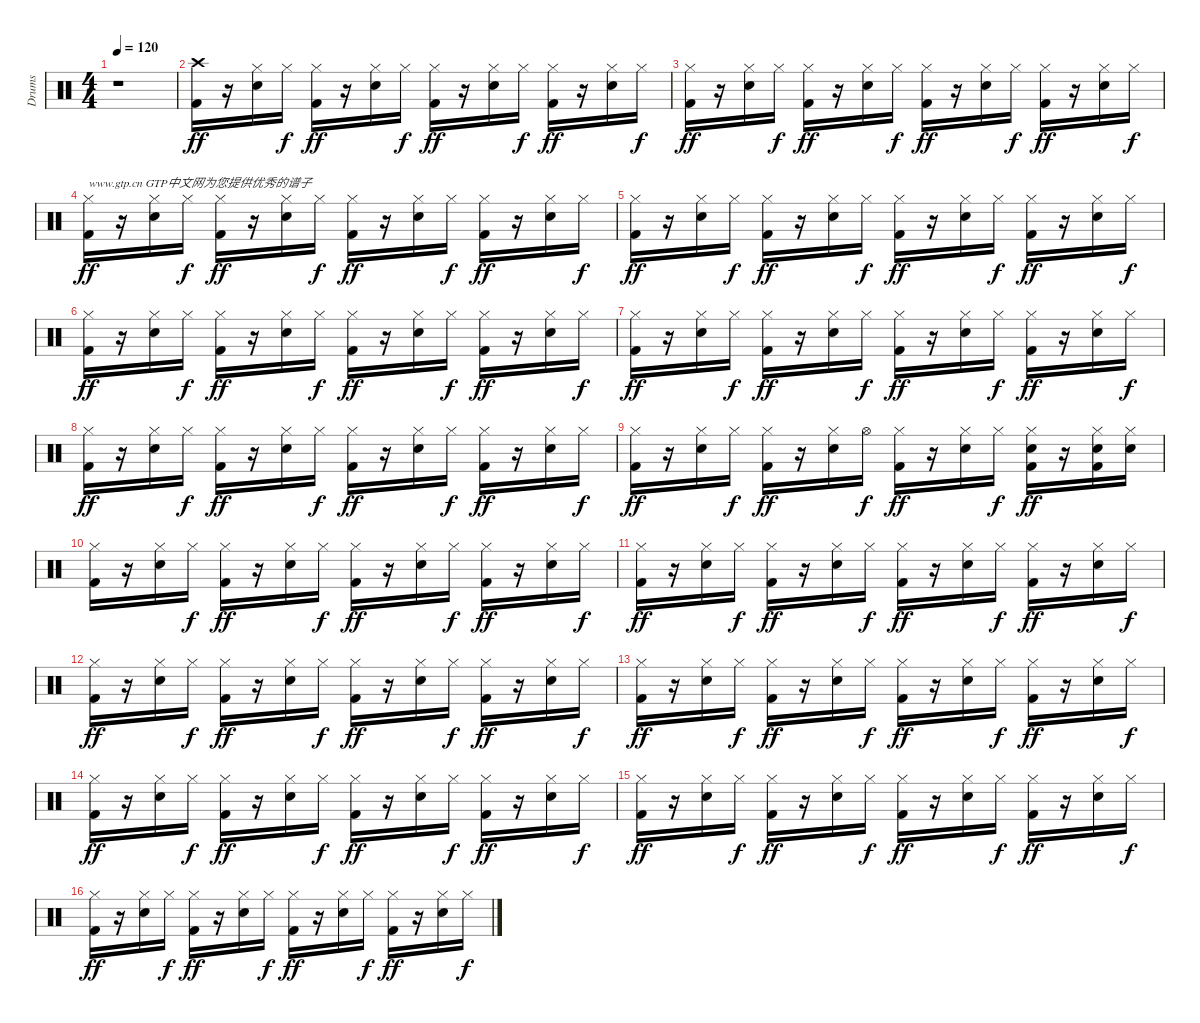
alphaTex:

\track ("Drums" "Drums") {instrument percussion}
\staff {score}
\articulation defaults
\ts (4 4)
\tempo 120
\clef neutral
\ks c
r.1{dy ff} |
("Crash high (hit)" "Kick (hit) 2").16 r.16 ("Hi-Hat (closed)" "Snare (hit) 2").16 "Hi-Hat (closed)".16{dy f} ("Hi-Hat (closed)" "Kick (hit) 2").16{dy ff} r.16 ("Hi-Hat (closed)" "Snare (hit) 2").16 "Hi-Hat (closed)".16{dy f} ("Hi-Hat (closed)" "Kick (hit) 2").16{dy ff} r.16 ("Hi-Hat (closed)" "Snare (hit) 2").16 "Hi-Hat (closed)".16{dy f} ("Hi-Hat (closed)" "Kick (hit) 2").16{dy ff} r.16 ("Hi-Hat (closed)" "Snare (hit) 2").16 "Hi-Hat (closed)".16{dy f} |
("Hi-Hat (closed)" "Kick (hit) 2").16{dy ff} r.16 ("Hi-Hat (closed)" "Snare (hit) 2").16 "Hi-Hat (closed)".16{dy f} ("Hi-Hat (closed)" "Kick (hit) 2").16{dy ff} r.16 ("Hi-Hat (closed)" "Snare (hit) 2").16 "Hi-Hat (closed)".16{dy f} ("Hi-Hat (closed)" "Kick (hit) 2").16{dy ff} r.16 ("Hi-Hat (closed)" "Snare (hit) 2").16 "Hi-Hat (closed)".16{dy f} ("Hi-Hat (closed)" "Kick (hit) 2").16{dy ff} r.16 ("Hi-Hat (closed)" "Snare (hit) 2").16 "Hi-Hat (closed)".16{dy f} |
("Hi-Hat (closed)" "Kick (hit) 2").16{txt "www.gtp.cn GTP中文网为您提供优秀的谱子" dy ff} r.16 ("Hi-Hat (closed)" "Snare (hit) 2").16 "Hi-Hat (closed)".16{dy f} ("Hi-Hat (closed)" "Kick (hit) 2").16{dy ff} r.16 ("Hi-Hat (closed)" "Snare (hit) 2").16 "Hi-Hat (closed)".16{dy f} ("Hi-Hat (closed)" "Kick (hit) 2").16{dy ff} r.16 ("Hi-Hat (closed)" "Snare (hit) 2").16 "Hi-Hat (closed)".16{dy f} ("Hi-Hat (closed)" "Kick (hit) 2").16{dy ff} r.16 ("Hi-Hat (closed)" "Snare (hit) 2").16 "Hi-Hat (closed)".16{dy f} |
("Hi-Hat (closed)" "Kick (hit) 2").16{dy ff} r.16 ("Hi-Hat (closed)" "Snare (hit) 2").16 "Hi-Hat (closed)".16{dy f} ("Hi-Hat (closed)" "Kick (hit) 2").16{dy ff} r.16 ("Hi-Hat (closed)" "Snare (hit) 2").16 "Hi-Hat (closed)".16{dy f} ("Hi-Hat (closed)" "Kick (hit) 2").16{dy ff} r.16 ("Hi-Hat (closed)" "Snare (hit) 2").16 "Hi-Hat (closed)".16{dy f} ("Hi-Hat (closed)" "Kick (hit) 2").16{dy ff} r.16 ("Hi-Hat (closed)" "Snare (hit) 2").16 "Hi-Hat (closed)".16{dy f} |
("Hi-Hat (closed)" "Kick (hit) 2").16{dy ff} r.16 ("Hi-Hat (closed)" "Snare (hit) 2").16 "Hi-Hat (closed)".16{dy f} ("Hi-Hat (closed)" "Kick (hit) 2").16{dy ff} r.16 ("Hi-Hat (closed)" "Snare (hit) 2").16 "Hi-Hat (closed)".16{dy f} ("Hi-Hat (closed)" "Kick (hit) 2").16{dy ff} r.16 ("Hi-Hat (closed)" "Snare (hit) 2").16 "Hi-Hat (closed)".16{dy f} ("Hi-Hat (closed)" "Kick (hit) 2").16{dy ff} r.16 ("Hi-Hat (closed)" "Snare (hit) 2").16 "Hi-Hat (closed)".16{dy f} |
("Hi-Hat (closed)" "Kick (hit) 2").16{dy ff} r.16 ("Hi-Hat (closed)" "Snare (hit) 2").16 "Hi-Hat (closed)".16{dy f} ("Hi-Hat (closed)" "Kick (hit) 2").16{dy ff} r.16 ("Hi-Hat (closed)" "Snare (hit) 2").16 "Hi-Hat (closed)".16{dy f} ("Hi-Hat (closed)" "Kick (hit) 2").16{dy ff} r.16 ("Hi-Hat (closed)" "Snare (hit) 2").16 "Hi-Hat (closed)".16{dy f} ("Hi-Hat (closed)" "Kick (hit) 2").16{dy ff} r.16 ("Hi-Hat (closed)" "Snare (hit) 2").16 "Hi-Hat (closed)".16{dy f} |
("Hi-Hat (closed)" "Kick (hit) 2").16{dy ff} r.16 ("Hi-Hat (closed)" "Snare (hit) 2").16 "Hi-Hat (closed)".16{dy f} ("Hi-Hat (closed)" "Kick (hit) 2").16{dy ff} r.16 ("Hi-Hat (closed)" "Snare (hit) 2").16 "Hi-Hat (closed)".16{dy f} ("Hi-Hat (closed)" "Kick (hit) 2").16{dy ff} r.16 ("Hi-Hat (closed)" "Snare (hit) 2").16 "Hi-Hat (closed)".16{dy f} ("Hi-Hat (closed)" "Kick (hit) 2").16{dy ff} r.16 ("Hi-Hat (closed)" "Snare (hit) 2").16 "Hi-Hat (closed)".16{dy f} |
("Hi-Hat (closed)" "Kick (hit) 2").16{dy ff} r.16 ("Hi-Hat (closed)" "Snare (hit) 2").16 "Hi-Hat (closed)".16{dy f} ("Hi-Hat (closed)" "Kick (hit) 2").16{dy ff} r.16 ("Hi-Hat (closed)" "Snare (hit) 2").16 "Hi-Hat (open)".16{dy f} ("Hi-Hat (closed)" "Kick (hit) 2").16{dy ff} r.16 ("Hi-Hat (closed)" "Snare (hit) 2").16 "Hi-Hat (closed)".16{dy f} ("Hi-Hat (closed)" "Snare (hit) 2" "Kick (hit) 2").16{dy ff} r.16 ("Hi-Hat (closed)" "Snare (hit) 2" "Kick (hit) 2").16 ("Hi-Hat (closed)" "Snare (hit) 2").16 |
("Hi-Hat (closed)" "Kick (hit) 2").16 r.16 ("Hi-Hat (closed)" "Snare (hit) 2").16 "Hi-Hat (closed)".16{dy f} ("Hi-Hat (closed)" "Kick (hit) 2").16{dy ff} r.16 ("Hi-Hat (closed)" "Snare (hit) 2").16 "Hi-Hat (closed)".16{dy f} ("Hi-Hat (closed)" "Kick (hit) 2").16{dy ff} r.16 ("Hi-Hat (closed)" "Snare (hit) 2").16 "Hi-Hat (closed)".16{dy f} ("Hi-Hat (closed)" "Kick (hit) 2").16{dy ff} r.16 ("Hi-Hat (closed)" "Snare (hit) 2").16 "Hi-Hat (closed)".16{dy f} |
("Hi-Hat (closed)" "Kick (hit) 2").16{dy ff} r.16 ("Hi-Hat (closed)" "Snare (hit) 2").16 "Hi-Hat (closed)".16{dy f} ("Hi-Hat (closed)" "Kick (hit) 2").16{dy ff} r.16 ("Hi-Hat (closed)" "Snare (hit) 2").16 "Hi-Hat (closed)".16{dy f} ("Hi-Hat (closed)" "Kick (hit) 2").16{dy ff} r.16 ("Hi-Hat (closed)" "Snare (hit) 2").16 "Hi-Hat (closed)".16{dy f} ("Hi-Hat (closed)" "Kick (hit) 2").16{dy ff} r.16 ("Hi-Hat (closed)" "Snare (hit) 2").16 "Hi-Hat (closed)".16{dy f} |
("Hi-Hat (closed)" "Kick (hit) 2").16{dy ff} r.16 ("Hi-Hat (closed)" "Snare (hit) 2").16 "Hi-Hat (closed)".16{dy f} ("Hi-Hat (closed)" "Kick (hit) 2").16{dy ff} r.16 ("Hi-Hat (closed)" "Snare (hit) 2").16 "Hi-Hat (closed)".16{dy f} ("Hi-Hat (closed)" "Kick (hit) 2").16{dy ff} r.16 ("Hi-Hat (closed)" "Snare (hit) 2").16 "Hi-Hat (closed)".16{dy f} ("Hi-Hat (closed)" "Kick (hit) 2").16{dy ff} r.16 ("Hi-Hat (closed)" "Snare (hit) 2").16 "Hi-Hat (closed)".16{dy f} |
("Hi-Hat (closed)" "Kick (hit) 2").16{dy ff} r.16 ("Hi-Hat (closed)" "Snare (hit) 2").16 "Hi-Hat (closed)".16{dy f} ("Hi-Hat (closed)" "Kick (hit) 2").16{dy ff} r.16 ("Hi-Hat (closed)" "Snare (hit) 2").16 "Hi-Hat (closed)".16{dy f} ("Hi-Hat (closed)" "Kick (hit) 2").16{dy ff} r.16 ("Hi-Hat (closed)" "Snare (hit) 2").16 "Hi-Hat (closed)".16{dy f} ("Hi-Hat (closed)" "Kick (hit) 2").16{dy ff} r.16 ("Hi-Hat (closed)" "Snare (hit) 2").16 "Hi-Hat (closed)".16{dy f} |
("Hi-Hat (closed)" "Kick (hit) 2").16{dy ff} r.16 ("Hi-Hat (closed)" "Snare (hit) 2").16 "Hi-Hat (closed)".16{dy f} ("Hi-Hat (closed)" "Kick (hit) 2").16{dy ff} r.16 ("Hi-Hat (closed)" "Snare (hit) 2").16 "Hi-Hat (closed)".16{dy f} ("Hi-Hat (closed)" "Kick (hit) 2").16{dy ff} r.16 ("Hi-Hat (closed)" "Snare (hit) 2").16 "Hi-Hat (closed)".16{dy f} ("Hi-Hat (closed)" "Kick (hit) 2").16{dy ff} r.16 ("Hi-Hat (closed)" "Snare (hit) 2").16 "Hi-Hat (closed)".16{dy f} |
("Hi-Hat (closed)" "Kick (hit) 2").16{dy ff} r.16 ("Hi-Hat (closed)" "Snare (hit) 2").16 "Hi-Hat (closed)".16{dy f} ("Hi-Hat (closed)" "Kick (hit) 2").16{dy ff} r.16 ("Hi-Hat (closed)" "Snare (hit) 2").16 "Hi-Hat (closed)".16{dy f} ("Hi-Hat (closed)" "Kick (hit) 2").16{dy ff} r.16 ("Hi-Hat (closed)" "Snare (hit) 2").16 "Hi-Hat (closed)".16{dy f} ("Hi-Hat (closed)" "Kick (hit) 2").16{dy ff} r.16 ("Hi-Hat (closed)" "Snare (hit) 2").16 "Hi-Hat (closed)".16{dy f} |
("Hi-Hat (closed)" "Kick (hit) 2").16{dy ff} r.16 ("Hi-Hat (closed)" "Snare (hit) 2").16 "Hi-Hat (closed)".16{dy f} ("Hi-Hat (closed)" "Kick (hit) 2").16{dy ff} r.16 ("Hi-Hat (closed)" "Snare (hit) 2").16 "Hi-Hat (closed)".16{dy f} ("Hi-Hat (closed)" "Kick (hit) 2").16{dy ff} r.16 ("Hi-Hat (closed)" "Snare (hit) 2").16 "Hi-Hat (closed)".16{dy f} ("Hi-Hat (closed)" "Kick (hit) 2").16{dy ff} r.16 ("Hi-Hat (closed)" "Snare (hit) 2").16 "Hi-Hat (closed)".16{dy f}
